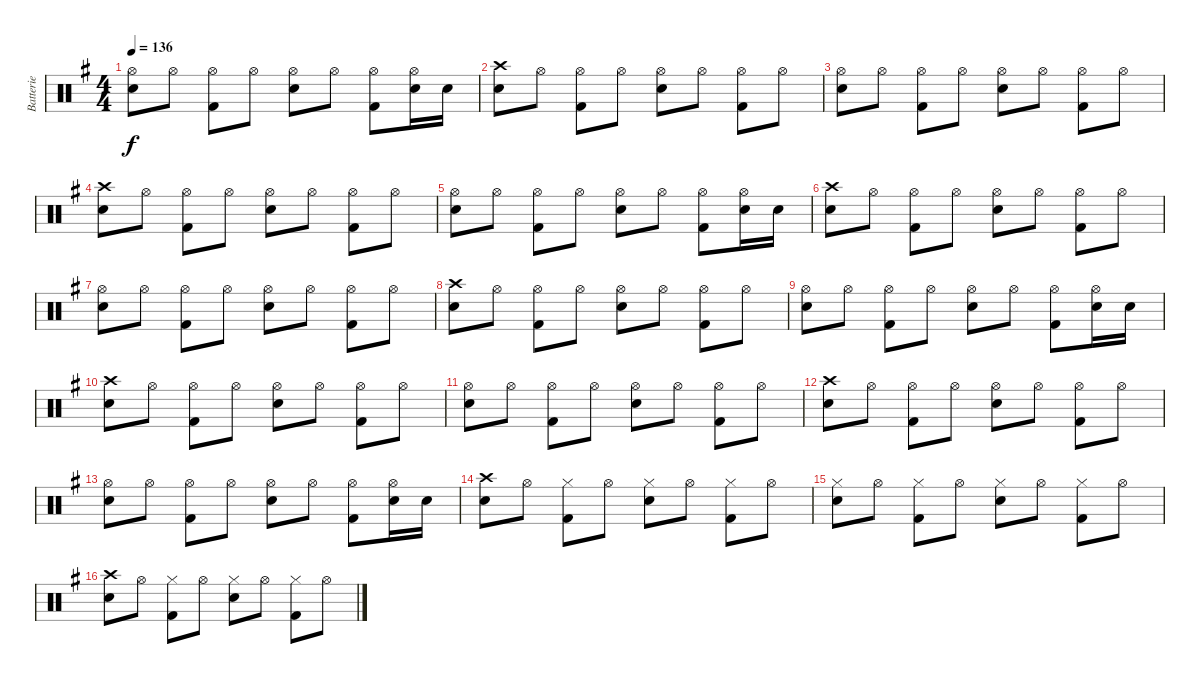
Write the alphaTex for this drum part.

\track ("Batterie" "Batterie") {instrument percussion}
\staff {score}
\articulation defaults
\ts (4 4)
\tempo 136
\clef neutral
\ks g
("Hi-Hat (open)" "Snare (hit) 2").8{dy f} "Hi-Hat (open)".8 ("Hi-Hat (open)" "Kick (hit) 2").8 "Hi-Hat (open)".8 ("Hi-Hat (open)" "Snare (hit) 2").8 "Hi-Hat (open)".8 ("Hi-Hat (open)" "Kick (hit) 2").8 ("Hi-Hat (open)" "Snare (hit) 2").16 "Snare (hit) 2".16 |
("Crash high (hit)" "Snare (hit) 2").8 "Hi-Hat (open)".8 ("Hi-Hat (open)" "Kick (hit) 2").8 "Hi-Hat (open)".8 ("Hi-Hat (open)" "Snare (hit) 2").8 "Hi-Hat (open)".8 ("Hi-Hat (open)" "Kick (hit) 2").8 "Hi-Hat (open)".8 |
("Hi-Hat (open)" "Snare (hit) 2").8 "Hi-Hat (open)".8 ("Hi-Hat (open)" "Kick (hit) 2").8 "Hi-Hat (open)".8 ("Hi-Hat (open)" "Snare (hit) 2").8 "Hi-Hat (open)".8 ("Hi-Hat (open)" "Kick (hit) 2").8 "Hi-Hat (open)".8 |
("Crash high (hit)" "Snare (hit) 2").8 "Hi-Hat (open)".8 ("Hi-Hat (open)" "Kick (hit) 2").8 "Hi-Hat (open)".8 ("Hi-Hat (open)" "Snare (hit) 2").8 "Hi-Hat (open)".8 ("Hi-Hat (open)" "Kick (hit) 2").8 "Hi-Hat (open)".8 |
("Hi-Hat (open)" "Snare (hit) 2").8 "Hi-Hat (open)".8 ("Hi-Hat (open)" "Kick (hit) 2").8 "Hi-Hat (open)".8 ("Hi-Hat (open)" "Snare (hit) 2").8 "Hi-Hat (open)".8 ("Hi-Hat (open)" "Kick (hit) 2").8 ("Hi-Hat (open)" "Snare (hit) 2").16 "Snare (hit) 2".16 |
("Crash high (hit)" "Snare (hit) 2").8 "Hi-Hat (open)".8 ("Hi-Hat (open)" "Kick (hit) 2").8 "Hi-Hat (open)".8 ("Hi-Hat (open)" "Snare (hit) 2").8 "Hi-Hat (open)".8 ("Hi-Hat (open)" "Kick (hit) 2").8 "Hi-Hat (open)".8 |
("Hi-Hat (open)" "Snare (hit) 2").8 "Hi-Hat (open)".8 ("Hi-Hat (open)" "Kick (hit) 2").8 "Hi-Hat (open)".8 ("Hi-Hat (open)" "Snare (hit) 2").8 "Hi-Hat (open)".8 ("Hi-Hat (open)" "Kick (hit) 2").8 "Hi-Hat (open)".8 |
("Crash high (hit)" "Snare (hit) 2").8 "Hi-Hat (open)".8 ("Hi-Hat (open)" "Kick (hit) 2").8 "Hi-Hat (open)".8 ("Hi-Hat (open)" "Snare (hit) 2").8 "Hi-Hat (open)".8 ("Hi-Hat (open)" "Kick (hit) 2").8 "Hi-Hat (open)".8 |
("Hi-Hat (open)" "Snare (hit) 2").8 "Hi-Hat (open)".8 ("Hi-Hat (open)" "Kick (hit) 2").8 "Hi-Hat (open)".8 ("Hi-Hat (open)" "Snare (hit) 2").8 "Hi-Hat (open)".8 ("Hi-Hat (open)" "Kick (hit) 2").8 ("Hi-Hat (open)" "Snare (hit) 2").16 "Snare (hit) 2".16 |
("Crash high (hit)" "Snare (hit) 2").8 "Hi-Hat (open)".8 ("Hi-Hat (open)" "Kick (hit) 2").8 "Hi-Hat (open)".8 ("Hi-Hat (open)" "Snare (hit) 2").8 "Hi-Hat (open)".8 ("Hi-Hat (open)" "Kick (hit) 2").8 "Hi-Hat (open)".8 |
("Hi-Hat (open)" "Snare (hit) 2").8 "Hi-Hat (open)".8 ("Hi-Hat (open)" "Kick (hit) 2").8 "Hi-Hat (open)".8 ("Hi-Hat (open)" "Snare (hit) 2").8 "Hi-Hat (open)".8 ("Hi-Hat (open)" "Kick (hit) 2").8 "Hi-Hat (open)".8 |
("Crash high (hit)" "Snare (hit) 2").8 "Hi-Hat (open)".8 ("Hi-Hat (open)" "Kick (hit) 2").8 "Hi-Hat (open)".8 ("Hi-Hat (open)" "Snare (hit) 2").8 "Hi-Hat (open)".8 ("Hi-Hat (open)" "Kick (hit) 2").8 "Hi-Hat (open)".8 |
("Hi-Hat (open)" "Snare (hit) 2").8 "Hi-Hat (open)".8 ("Hi-Hat (open)" "Kick (hit) 2").8 "Hi-Hat (open)".8 ("Hi-Hat (open)" "Snare (hit) 2").8 "Hi-Hat (open)".8 ("Hi-Hat (open)" "Kick (hit) 2").8 ("Hi-Hat (open)" "Snare (hit) 2").16 "Snare (hit) 2".16 |
("Crash high (hit)" "Snare (hit) 2").8 "Hi-Hat (open)".8 ("Hi-Hat (closed)" "Kick (hit) 2").8 "Hi-Hat (open)".8 ("Hi-Hat (closed)" "Snare (hit) 2").8 "Hi-Hat (open)".8 ("Hi-Hat (closed)" "Kick (hit) 2").8 "Hi-Hat (open)".8 |
("Hi-Hat (closed)" "Snare (hit) 2").8 "Hi-Hat (open)".8 ("Hi-Hat (closed)" "Kick (hit) 2").8 "Hi-Hat (open)".8 ("Hi-Hat (closed)" "Snare (hit) 2").8 "Hi-Hat (open)".8 ("Hi-Hat (closed)" "Kick (hit) 2").8 "Hi-Hat (open)".8 |
("Crash high (hit)" "Snare (hit) 2").8 "Hi-Hat (open)".8 ("Hi-Hat (closed)" "Kick (hit) 2").8 "Hi-Hat (open)".8 ("Hi-Hat (closed)" "Snare (hit) 2").8 "Hi-Hat (open)".8 ("Hi-Hat (closed)" "Kick (hit) 2").8 "Hi-Hat (open)".8
